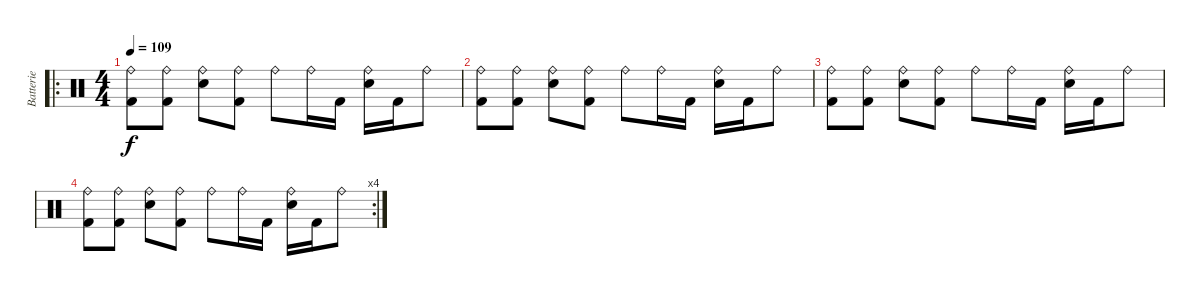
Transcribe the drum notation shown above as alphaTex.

\track ("Batterie" "Batterie") {instrument percussion}
\staff {score}
\articulation defaults
\ro
\ts (4 4)
\tempo 109
\clef neutral
\ks c
("Kick (hit) 2" "Ride (bell)").8{dy f} ("Kick (hit) 2" "Ride (bell)").8 ("Snare (hit) 2" "Ride (bell)").8 ("Kick (hit) 2" "Ride (bell)").8 "Ride (bell)".8 "Ride (bell)".16 "Kick (hit) 2".16 ("Snare (hit) 2" "Ride (bell)").16 "Kick (hit) 2".16 "Ride (bell)".8 |
("Kick (hit) 2" "Ride (bell)").8 ("Kick (hit) 2" "Ride (bell)").8 ("Snare (hit) 2" "Ride (bell)").8 ("Kick (hit) 2" "Ride (bell)").8 "Ride (bell)".8 "Ride (bell)".16 "Kick (hit) 2".16 ("Snare (hit) 2" "Ride (bell)").16 "Kick (hit) 2".16 "Ride (bell)".8 |
("Kick (hit) 2" "Ride (bell)").8 ("Kick (hit) 2" "Ride (bell)").8 ("Snare (hit) 2" "Ride (bell)").8 ("Kick (hit) 2" "Ride (bell)").8 "Ride (bell)".8 "Ride (bell)".16 "Kick (hit) 2".16 ("Snare (hit) 2" "Ride (bell)").16 "Kick (hit) 2".16 "Ride (bell)".8 |
\rc 4
("Kick (hit) 2" "Ride (bell)").8 ("Kick (hit) 2" "Ride (bell)").8 ("Snare (hit) 2" "Ride (bell)").8 ("Kick (hit) 2" "Ride (bell)").8 "Ride (bell)".8 "Ride (bell)".16 "Kick (hit) 2".16 ("Snare (hit) 2" "Ride (bell)").16 "Kick (hit) 2".16 "Ride (bell)".8
